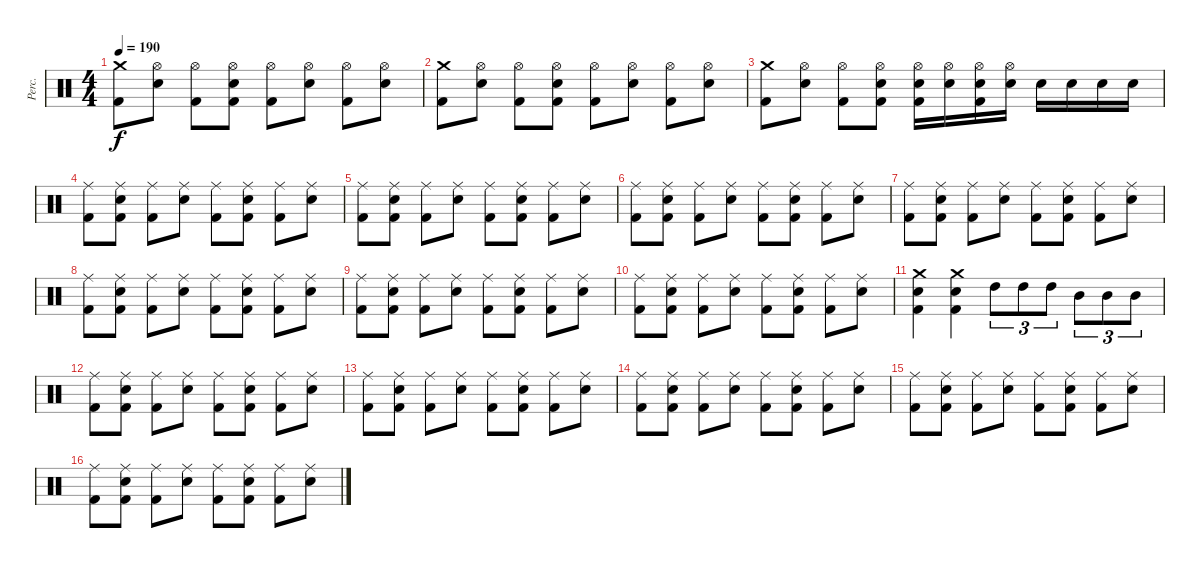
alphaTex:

\track ("Perc." "Perc.") {instrument percussion}
\staff {score}
\articulation defaults
\ts (4 4)
\tempo 190
\clef neutral
\ks c
("Crash medium (hit)" "Kick (hit) 2").8{dy f} ("Hi-Hat (open)" "Snare (hit) 2").8 ("Hi-Hat (open)" "Kick (hit) 2").8 ("Hi-Hat (open)" "Snare (hit) 2" "Kick (hit) 2").8 ("Hi-Hat (open)" "Kick (hit) 2").8 ("Hi-Hat (open)" "Snare (hit) 2").8 ("Hi-Hat (open)" "Kick (hit) 2").8 ("Hi-Hat (open)" "Snare (hit) 2").8 |
("Crash medium (hit)" "Kick (hit) 2").8 ("Hi-Hat (open)" "Snare (hit) 2").8 ("Hi-Hat (open)" "Kick (hit) 2").8 ("Hi-Hat (open)" "Snare (hit) 2" "Kick (hit) 2").8 ("Hi-Hat (open)" "Kick (hit) 2").8 ("Hi-Hat (open)" "Snare (hit) 2").8 ("Hi-Hat (open)" "Kick (hit) 2").8 ("Hi-Hat (open)" "Snare (hit) 2").8 |
("Crash medium (hit)" "Kick (hit) 2").8 ("Hi-Hat (open)" "Snare (hit) 2").8 ("Hi-Hat (open)" "Kick (hit) 2").8 ("Hi-Hat (open)" "Snare (hit) 2" "Kick (hit) 2").8 ("Hi-Hat (open)" "Snare (hit) 2" "Kick (hit) 2").16 ("Hi-Hat (open)" "Snare (hit) 2").16 ("Hi-Hat (open)" "Snare (hit) 2" "Kick (hit) 2").16 ("Hi-Hat (open)" "Snare (hit) 2").16 "Snare (hit) 2".16 "Snare (hit) 2".16 "Snare (hit) 2".16 "Snare (hit) 2".16 |
("Kick (hit) 2" "Ride (middle)").8 ("Kick (hit) 2" "Snare (hit) 2" "Ride (middle)").8 ("Kick (hit) 2" "Ride (middle)").8 ("Snare (hit) 2" "Ride (middle)").8 ("Kick (hit) 2" "Ride (middle)").8 ("Kick (hit) 2" "Snare (hit) 2" "Ride (middle)").8 ("Kick (hit) 2" "Ride (middle)").8 ("Snare (hit) 2" "Ride (middle)").8 |
("Kick (hit) 2" "Ride (middle)").8 ("Kick (hit) 2" "Snare (hit) 2" "Ride (middle)").8 ("Kick (hit) 2" "Ride (middle)").8 ("Snare (hit) 2" "Ride (middle)").8 ("Kick (hit) 2" "Ride (middle)").8 ("Kick (hit) 2" "Snare (hit) 2" "Ride (middle)").8 ("Kick (hit) 2" "Ride (middle)").8 ("Snare (hit) 2" "Ride (middle)").8 |
("Kick (hit) 2" "Ride (middle)").8 ("Kick (hit) 2" "Snare (hit) 2" "Ride (middle)").8 ("Kick (hit) 2" "Ride (middle)").8 ("Snare (hit) 2" "Ride (middle)").8 ("Kick (hit) 2" "Ride (middle)").8 ("Kick (hit) 2" "Snare (hit) 2" "Ride (middle)").8 ("Kick (hit) 2" "Ride (middle)").8 ("Snare (hit) 2" "Ride (middle)").8 |
("Kick (hit) 2" "Ride (middle)").8 ("Kick (hit) 2" "Snare (hit) 2" "Ride (middle)").8 ("Kick (hit) 2" "Ride (middle)").8 ("Snare (hit) 2" "Ride (middle)").8 ("Kick (hit) 2" "Ride (middle)").8 ("Kick (hit) 2" "Snare (hit) 2" "Ride (middle)").8 ("Kick (hit) 2" "Ride (middle)").8 ("Snare (hit) 2" "Ride (middle)").8 |
("Kick (hit) 2" "Ride (middle)").8 ("Kick (hit) 2" "Snare (hit) 2" "Ride (middle)").8 ("Kick (hit) 2" "Ride (middle)").8 ("Snare (hit) 2" "Ride (middle)").8 ("Kick (hit) 2" "Ride (middle)").8 ("Kick (hit) 2" "Snare (hit) 2" "Ride (middle)").8 ("Kick (hit) 2" "Ride (middle)").8 ("Snare (hit) 2" "Ride (middle)").8 |
("Kick (hit) 2" "Ride (middle)").8 ("Kick (hit) 2" "Snare (hit) 2" "Ride (middle)").8 ("Kick (hit) 2" "Ride (middle)").8 ("Snare (hit) 2" "Ride (middle)").8 ("Kick (hit) 2" "Ride (middle)").8 ("Kick (hit) 2" "Snare (hit) 2" "Ride (middle)").8 ("Kick (hit) 2" "Ride (middle)").8 ("Snare (hit) 2" "Ride (middle)").8 |
("Kick (hit) 2" "Ride (middle)").8 ("Kick (hit) 2" "Snare (hit) 2" "Ride (middle)").8 ("Kick (hit) 2" "Ride (middle)").8 ("Snare (hit) 2" "Ride (middle)").8 ("Kick (hit) 2" "Ride (middle)").8 ("Kick (hit) 2" "Snare (hit) 2" "Ride (middle)").8 ("Kick (hit) 2" "Ride (middle)").8 ("Snare (hit) 2" "Ride (middle)").8 |
("Crash medium (hit)" "Kick (hit) 2" "Snare (hit) 2").4 ("Crash medium (hit)" "Kick (hit) 2" "Snare (hit) 2").4 "High Tom (hit)".8{tu (3 2)} "High Tom (hit)".8{tu (3 2)} "High Tom (hit)".8{tu (3 2)} "Mid Tom (hit)".8{tu (3 2)} "Mid Tom (hit)".8{tu (3 2)} "Mid Tom (hit)".8{tu (3 2)} |
("Kick (hit) 2" "Ride (middle)").8 ("Kick (hit) 2" "Snare (hit) 2" "Ride (middle)").8 ("Kick (hit) 2" "Ride (middle)").8 ("Snare (hit) 2" "Ride (middle)").8 ("Kick (hit) 2" "Ride (middle)").8 ("Kick (hit) 2" "Snare (hit) 2" "Ride (middle)").8 ("Kick (hit) 2" "Ride (middle)").8 ("Snare (hit) 2" "Ride (middle)").8 |
("Kick (hit) 2" "Ride (middle)").8 ("Kick (hit) 2" "Snare (hit) 2" "Ride (middle)").8 ("Kick (hit) 2" "Ride (middle)").8 ("Snare (hit) 2" "Ride (middle)").8 ("Kick (hit) 2" "Ride (middle)").8 ("Kick (hit) 2" "Snare (hit) 2" "Ride (middle)").8 ("Kick (hit) 2" "Ride (middle)").8 ("Snare (hit) 2" "Ride (middle)").8 |
("Kick (hit) 2" "Ride (middle)").8 ("Kick (hit) 2" "Snare (hit) 2" "Ride (middle)").8 ("Kick (hit) 2" "Ride (middle)").8 ("Snare (hit) 2" "Ride (middle)").8 ("Kick (hit) 2" "Ride (middle)").8 ("Kick (hit) 2" "Snare (hit) 2" "Ride (middle)").8 ("Kick (hit) 2" "Ride (middle)").8 ("Snare (hit) 2" "Ride (middle)").8 |
("Kick (hit) 2" "Ride (middle)").8 ("Kick (hit) 2" "Snare (hit) 2" "Ride (middle)").8 ("Kick (hit) 2" "Ride (middle)").8 ("Snare (hit) 2" "Ride (middle)").8 ("Kick (hit) 2" "Ride (middle)").8 ("Kick (hit) 2" "Snare (hit) 2" "Ride (middle)").8 ("Kick (hit) 2" "Ride (middle)").8 ("Snare (hit) 2" "Ride (middle)").8 |
("Kick (hit) 2" "Ride (middle)").8 ("Kick (hit) 2" "Snare (hit) 2" "Ride (middle)").8 ("Kick (hit) 2" "Ride (middle)").8 ("Snare (hit) 2" "Ride (middle)").8 ("Kick (hit) 2" "Ride (middle)").8 ("Kick (hit) 2" "Snare (hit) 2" "Ride (middle)").8 ("Kick (hit) 2" "Ride (middle)").8 ("Snare (hit) 2" "Ride (middle)").8
